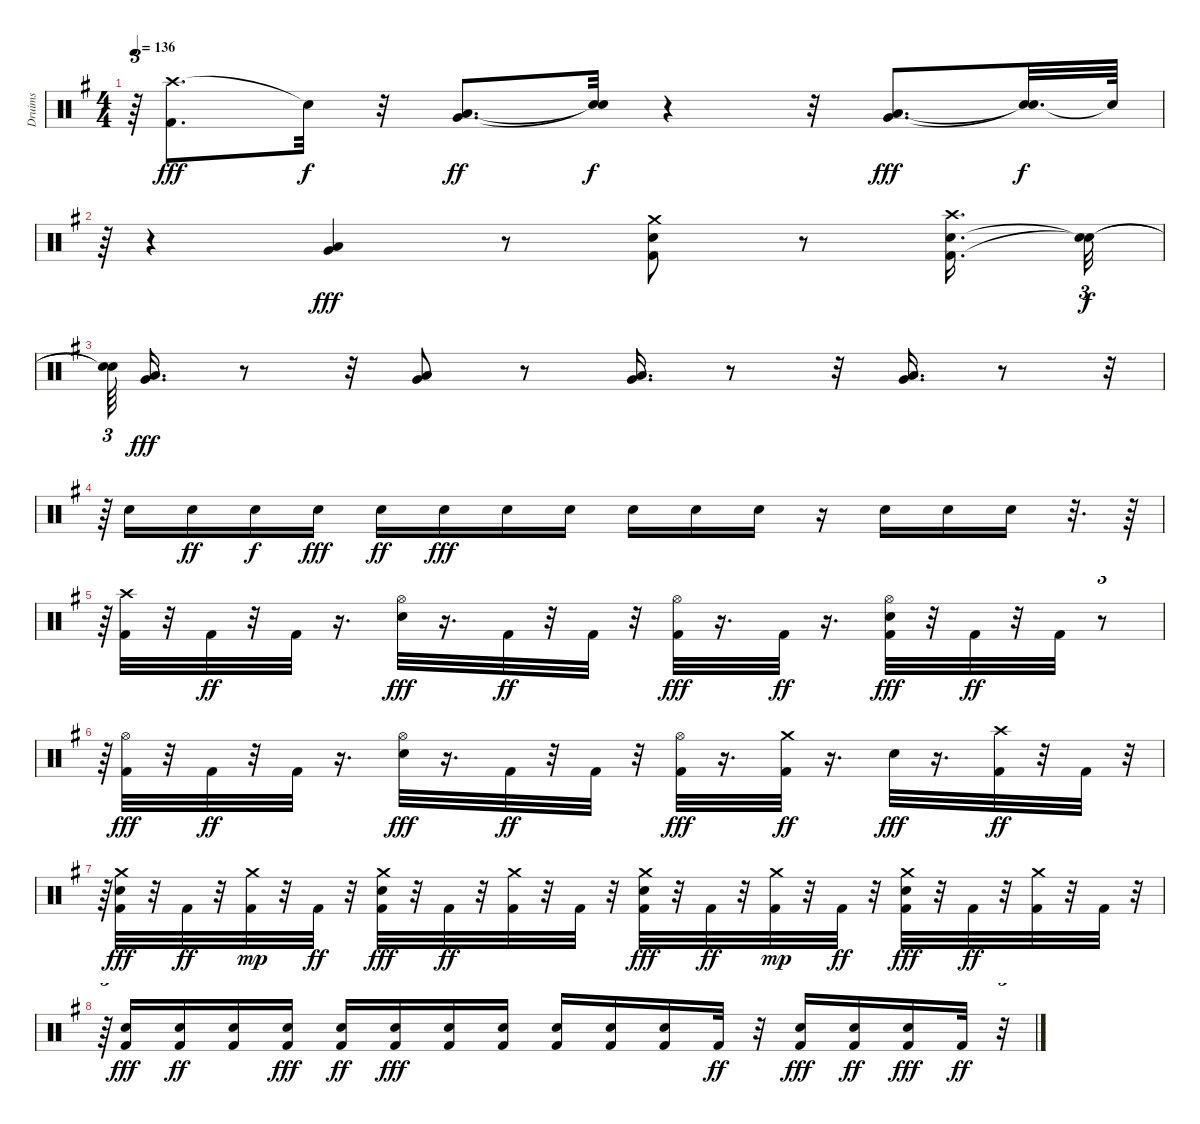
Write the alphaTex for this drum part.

\track ("Druims" "Druims") {instrument percussion}
\staff {score}
\articulation defaults
\ts (4 4)
\tempo 136
\clef neutral
\ks eminor
r.64{tu (3 2) dy fff} ("Crash high (hit)" "Kick (hit) 2").8{d} "Snare (hit)"{t}.32{dy f} r.32 ("Very Low Tom (hit)" "Low Floor Tom (hit)").8{d dy ff} ("Snare (hit)"{t} "Snare (hit)"{t}).32{dy f} r.4 r.32 ("Very Low Tom (hit)" "Low Floor Tom (hit)").8{d dy fff} ("Snare (hit)"{t} "Snare (hit)"{t}).32{d dy f} "Snare (hit)"{t}.64 |
r.64{tu (3 2)} r.4 ("Very Low Tom (hit)" "Low Floor Tom (hit)").4{dy fff} r.8 ("Kick (hit) 2" "Snare (hit) 2" "Crash medium (hit)").8 r.8 ("Kick (hit) 2" "Snare (hit) 2" "Crash high (hit)").16{d} ("Snare (hit)"{t} "Snare (hit)"{t}).32{tu (3 2) dy f} |
("Snare (hit)"{t} "Snare (hit)"{t}).64{tu (3 2)} ("Very Low Tom (hit)" "Low Floor Tom (hit)").16{d dy fff} r.8 r.32 ("Low Floor Tom (hit)" "Very Low Tom (hit)").8 r.8 ("Very Low Tom (hit)" "Low Floor Tom (hit)").16{d} r.8 r.32 ("Low Floor Tom (hit)" "Very Low Tom (hit)").16{d} r.8 r.32{tu (3 2)} |
r.64{tu (3 2)} "Snare (hit) 2".16 "Snare (hit) 2".16{dy ff} "Snare (hit) 2".16{dy f} "Snare (hit) 2".16{dy fff} "Snare (hit) 2".16{dy ff} "Snare (hit) 2".16{dy fff} "Snare (hit) 2".16 "Snare (hit) 2".16 "Snare (hit) 2".16 "Snare (hit) 2".16 "Snare (hit) 2".16 r.16 "Snare (hit) 2".16 "Snare (hit) 2".16 "Snare (hit) 2".16 r.32{d} r.64 |
r.64{tu (3 2)} ("Kick (hit) 2" "Crash high (hit)").32 r.32 "Kick (hit) 2".32{dy ff} r.32 "Kick (hit) 2".32 r.16{d} ("Hi-Hat (open)" "Snare (hit) 2").32{dy fff} r.16{d} "Kick (hit) 2".32{dy ff} r.32 "Kick (hit) 2".32 r.32 ("Kick (hit) 2" "Hi-Hat (open)").32{dy fff} r.16{d} "Kick (hit) 2".32{dy ff} r.16{d} ("Hi-Hat (open)" "Kick (hit) 2" "Snare (hit) 2").32{dy fff} r.32 "Kick (hit) 2".32{dy ff} r.32 "Kick (hit) 2".32 r.8{tu (3 2)} |
r.64{tu (3 2)} ("Kick (hit) 2" "Hi-Hat (open)").32{dy fff} r.32 "Kick (hit) 2".32{dy ff} r.32 "Kick (hit) 2".32 r.16{d} ("Hi-Hat (open)" "Snare (hit) 2").32{dy fff} r.16{d} "Kick (hit) 2".32{dy ff} r.32 "Kick (hit) 2".32 r.32 ("Kick (hit) 2" "Hi-Hat (open)").32{dy fff} r.16{d} ("Crash medium (hit)" "Kick (hit) 2").32{dy ff} r.16{d} "Snare (hit) 2".32{dy fff} r.16{d} ("Crash high (hit)" "Kick (hit) 2").32{dy ff} r.32 "Kick (hit) 2".32 r.32{tu (3 2)} |
r.64{tu (3 2)} ("Kick (hit) 2" "Crash medium (hit)" "Snare (hit) 2").32{dy fff} r.32 "Kick (hit) 2".32{dy ff} r.32 ("Kick (hit) 2" "Crash medium (hit)").32{dy mp} r.32 "Kick (hit) 2".32{dy ff} r.32 ("Kick (hit) 2" "Crash medium (hit)" "Snare (hit) 2").32{dy fff} r.32 "Kick (hit) 2".32{dy ff} r.32 ("Crash medium (hit)" "Kick (hit) 2").32 r.32 "Kick (hit) 2".32 r.32 ("Kick (hit) 2" "Crash medium (hit)" "Snare (hit) 2").32{dy fff} r.32 "Kick (hit) 2".32{dy ff} r.32 ("Kick (hit) 2" "Crash medium (hit)").32{dy mp} r.32 "Kick (hit) 2".32{dy ff} r.32 ("Kick (hit) 2" "Snare (hit) 2" "Crash medium (hit)").32{dy fff} r.32 "Kick (hit) 2".32{dy ff} r.32 ("Crash medium (hit)" "Kick (hit) 2").32 r.32 "Kick (hit) 2".32 r.32{tu (3 2)} |
r.64{tu (3 2)} ("Snare (hit) 2" "Kick (hit) 2").16{dy fff} ("Kick (hit) 2" "Snare (hit) 2").16{dy ff} ("Snare (hit) 2" "Kick (hit) 2").16 ("Kick (hit) 2" "Snare (hit) 2").16{dy fff} ("Snare (hit) 2" "Kick (hit) 2").16{dy ff} ("Kick (hit) 2" "Snare (hit) 2").16{dy fff} ("Kick (hit) 2" "Snare (hit) 2").16 ("Kick (hit) 2" "Snare (hit) 2").16 ("Snare (hit) 2" "Kick (hit) 2").16 ("Kick (hit) 2" "Snare (hit) 2").16 ("Kick (hit) 2" "Snare (hit) 2").16 "Kick (hit) 2".32{dy ff} r.32 ("Kick (hit) 2" "Snare (hit) 2").16{dy fff} ("Snare (hit) 2" "Kick (hit) 2").16{dy ff} ("Kick (hit) 2" "Snare (hit) 2").16{dy fff} "Kick (hit) 2".32{dy ff} r.32{tu (3 2)}
